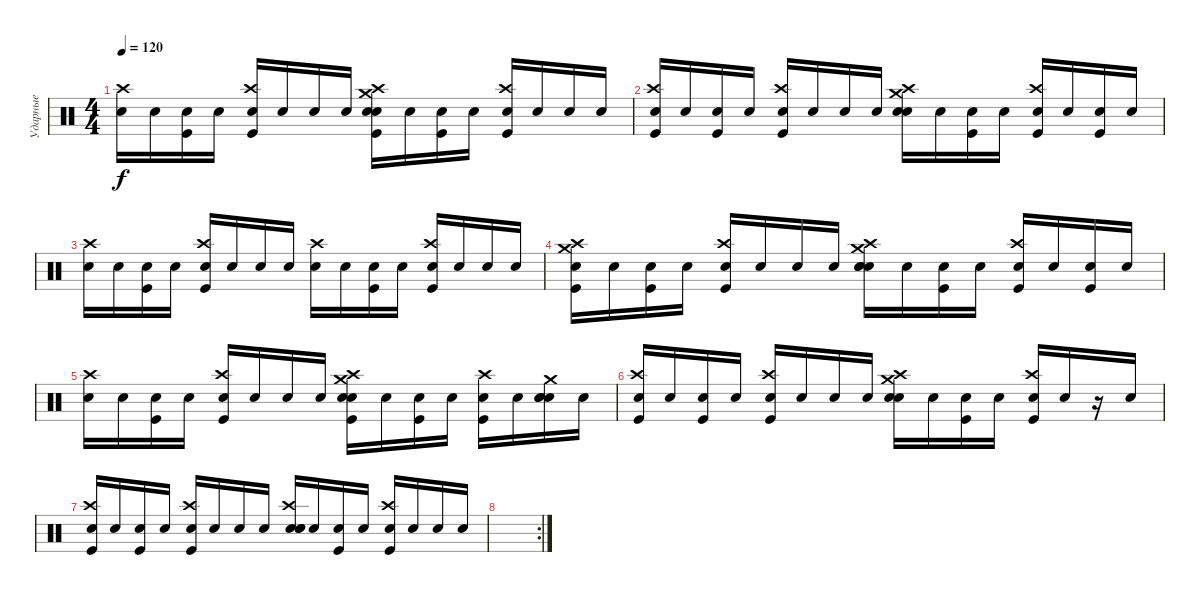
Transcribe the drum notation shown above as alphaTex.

\track ("Ударные" "Ударные") {instrument percussion}
\staff {score}
\articulation defaults
\ts (4 4)
\tempo 120
\clef neutral
\ks c
("Snare (hit)"{x} "Crash high (hit)").16{dy f} "Snare (hit)"{x}.16 ("Snare (hit)"{x} "Kick (hit)").16 "Snare (hit)"{x}.16 ("Snare (hit)"{x} "Kick (hit)" "Crash high (hit)").16 "Snare (hit)"{x}.16 "Snare (hit)"{x}.16 "Snare (hit)"{x}.16 ("Snare (hit)"{x} "Electric Snare (hit)" "Crash medium (hit)" "Kick (hit)" "Crash high (hit)").16 "Snare (hit)"{x}.16 ("Snare (hit)"{x} "Kick (hit)").16 "Snare (hit)"{x}.16 ("Snare (hit)"{x} "Kick (hit)" "Crash high (hit)").16 "Snare (hit)"{x}.16 "Snare (hit)"{x}.16 "Snare (hit)"{x}.16 |
("Snare (hit)"{x} "Kick (hit)" "Crash high (hit)").16 "Snare (hit)"{x}.16 ("Snare (hit)"{x} "Kick (hit)").16 "Snare (hit)"{x}.16 ("Snare (hit)"{x} "Kick (hit)" "Crash high (hit)").16 "Snare (hit)"{x}.16 "Snare (hit)"{x}.16 "Snare (hit)"{x}.16 ("Crash medium (hit)" "Electric Snare (hit)" "Snare (hit) 2" "Crash high (hit)").16 "Snare (hit)"{x}.16 ("Snare (hit)"{x} "Kick (hit)").16 "Snare (hit)"{x}.16 ("Snare (hit)"{x} "Kick (hit)" "Crash high (hit)").16 "Snare (hit)"{x}.16 ("Snare (hit)"{x} "Kick (hit)").16 "Snare (hit)"{x}.16 |
("Snare (hit)"{x} "Crash high (hit)").16 "Snare (hit)"{x}.16 ("Snare (hit)"{x} "Kick (hit)").16 "Snare (hit)"{x}.16 ("Snare (hit)"{x} "Kick (hit)" "Crash high (hit)").16 "Snare (hit)"{x}.16 "Snare (hit)"{x}.16 "Snare (hit)"{x}.16 ("Snare (hit)"{x} "Crash high (hit)").16 "Snare (hit)"{x}.16 ("Snare (hit)"{x} "Kick (hit)").16 "Snare (hit)"{x}.16 ("Snare (hit)"{x} "Kick (hit)" "Crash high (hit)").16 "Snare (hit)"{x}.16 "Snare (hit)"{x}.16 "Snare (hit)"{x}.16 |
("Snare (hit)"{x} "Kick (hit)" "Crash medium (hit)" "Crash high (hit)").16 "Snare (hit)"{x}.16 ("Snare (hit)"{x} "Kick (hit)").16 "Snare (hit)"{x}.16 ("Snare (hit)"{x} "Kick (hit)" "Crash high (hit)").16 "Snare (hit)"{x}.16 "Snare (hit)"{x}.16 "Snare (hit)"{x}.16 ("Snare (hit)"{x} "Crash medium (hit)" "Electric Snare (hit)" "Snare (hit) 2" "Crash high (hit)").16 "Snare (hit)"{x}.16 ("Snare (hit)"{x} "Kick (hit)").16 "Snare (hit)"{x}.16 ("Snare (hit)"{x} "Kick (hit)" "Crash high (hit)").16 "Snare (hit)"{x}.16 ("Snare (hit)"{x} "Kick (hit)").16 "Snare (hit)"{x}.16 |
("Snare (hit)"{x} "Crash high (hit)").16 "Snare (hit)"{x}.16 ("Snare (hit)"{x} "Kick (hit)").16 "Snare (hit)"{x}.16 ("Snare (hit)"{x} "Kick (hit)" "Crash high (hit)").16 "Snare (hit)"{x}.16 "Snare (hit)"{x}.16 "Snare (hit)"{x}.16 ("Snare (hit)"{x} "Electric Snare (hit)" "Crash medium (hit)" "Kick (hit)" "Crash high (hit)").16 "Snare (hit)"{x}.16 ("Snare (hit)"{x} "Kick (hit)").16 "Snare (hit)"{x}.16 ("Snare (hit)"{x} "Kick (hit)" "Crash high (hit)").16 "Snare (hit)"{x}.16 ("Snare (hit)"{x} "Electric Snare (hit)" "Crash medium (hit)" "Snare (hit) 2").16 "Snare (hit)"{x}.16 |
("Snare (hit)"{x} "Kick (hit)" "Crash high (hit)").16 "Snare (hit)"{x}.16 ("Snare (hit)"{x} "Kick (hit)").16 "Snare (hit)"{x}.16 ("Snare (hit)"{x} "Kick (hit)" "Crash high (hit)").16 "Snare (hit)"{x}.16 "Snare (hit)"{x}.16 "Snare (hit)"{x}.16 ("Crash medium (hit)" "Electric Snare (hit)" "Snare (hit) 2" "Crash high (hit)").16 "Snare (hit)"{x}.16 ("Snare (hit)"{x} "Kick (hit)").16 "Snare (hit)"{x}.16 ("Snare (hit)"{x} "Kick (hit)" "Crash high (hit)").16 "Snare (hit)"{x}.16 r.16 "Snare (hit)"{x}.16 |
("Snare (hit)"{x} "Kick (hit)" "Crash high (hit)").16 "Snare (hit)"{x}.16 ("Snare (hit)"{x} "Kick (hit)").16 "Snare (hit)"{x}.16 ("Snare (hit)"{x} "Kick (hit)" "Crash high (hit)").16 "Snare (hit)"{x}.16 "Snare (hit)"{x}.16 "Snare (hit)"{x}.16 ("Snare (hit)"{x} "Snare (hit) 2" "Electric Snare (hit)" "Crash high (hit)").16 "Snare (hit)"{x}.16 ("Snare (hit)"{x} "Kick (hit)").16 "Snare (hit)"{x}.16 ("Snare (hit)"{x} "Kick (hit)" "Crash high (hit)").16 "Snare (hit)"{x}.16 "Snare (hit)"{x}.16 "Snare (hit)"{x}.16 |
\rc 2
